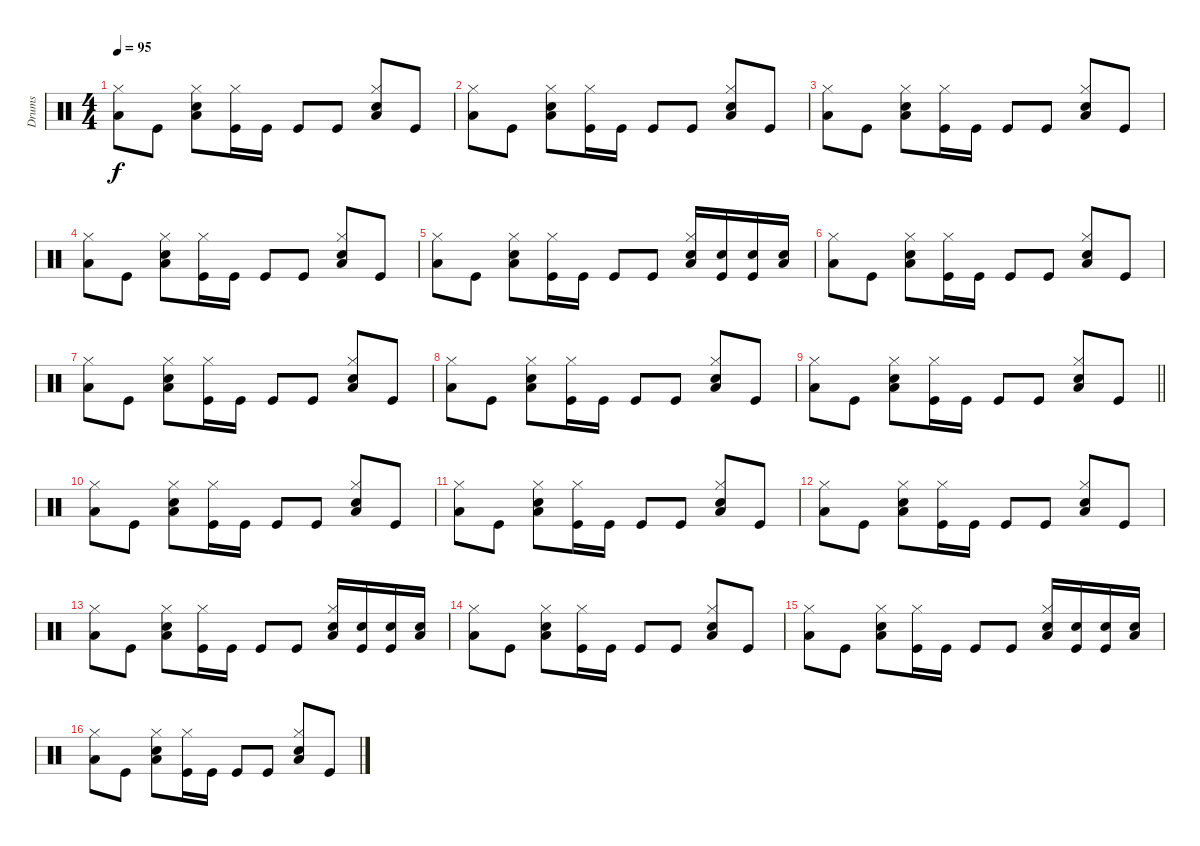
\track ("Drums" "Drums") {instrument percussion}
\staff {score}
\articulation defaults
\ts (4 4)
\tempo 95
\clef neutral
\ks c
("Low Floor Tom (hit)" "Hi-Hat (closed)").8{dy f} "Kick (hit)".8 ("Low Floor Tom (hit)" "Snare (hit) 2" "Hi-Hat (closed)").8 ("Kick (hit)" "Hi-Hat (closed)").16 "Kick (hit)".16 "Kick (hit)".8 "Kick (hit)".8 ("Low Floor Tom (hit)" "Snare (hit) 2" "Hi-Hat (closed)").8 "Kick (hit)".8 |
("Low Floor Tom (hit)" "Hi-Hat (closed)").8 "Kick (hit)".8 ("Low Floor Tom (hit)" "Snare (hit) 2" "Hi-Hat (closed)").8 ("Kick (hit)" "Hi-Hat (closed)").16 "Kick (hit)".16 "Kick (hit)".8 "Kick (hit)".8 ("Low Floor Tom (hit)" "Snare (hit) 2" "Hi-Hat (closed)").8 "Kick (hit)".8 |
("Low Floor Tom (hit)" "Hi-Hat (closed)").8 "Kick (hit)".8 ("Low Floor Tom (hit)" "Snare (hit) 2" "Hi-Hat (closed)").8 ("Kick (hit)" "Hi-Hat (closed)").16 "Kick (hit)".16 "Kick (hit)".8 "Kick (hit)".8 ("Low Floor Tom (hit)" "Snare (hit) 2" "Hi-Hat (closed)").8 "Kick (hit)".8 |
("Low Floor Tom (hit)" "Hi-Hat (closed)").8 "Kick (hit)".8 ("Low Floor Tom (hit)" "Snare (hit) 2" "Hi-Hat (closed)").8 ("Kick (hit)" "Hi-Hat (closed)").16 "Kick (hit)".16 "Kick (hit)".8 "Kick (hit)".8 ("Low Floor Tom (hit)" "Snare (hit) 2" "Hi-Hat (closed)").8 "Kick (hit)".8 |
("Low Floor Tom (hit)" "Hi-Hat (closed)").8 "Kick (hit)".8 ("Low Floor Tom (hit)" "Snare (hit) 2" "Hi-Hat (closed)").8 ("Kick (hit)" "Hi-Hat (closed)").16 "Kick (hit)".16 "Kick (hit)".8 "Kick (hit)".8 ("Low Floor Tom (hit)" "Snare (hit) 2" "Hi-Hat (closed)").16 ("Kick (hit)" "Snare (hit) 2").16 ("Kick (hit)" "Snare (hit) 2").16 ("Low Floor Tom (hit)" "Snare (hit) 2").16 |
("Low Floor Tom (hit)" "Hi-Hat (closed)").8 "Kick (hit)".8 ("Low Floor Tom (hit)" "Snare (hit) 2" "Hi-Hat (closed)").8 ("Kick (hit)" "Hi-Hat (closed)").16 "Kick (hit)".16 "Kick (hit)".8 "Kick (hit)".8 ("Low Floor Tom (hit)" "Snare (hit) 2" "Hi-Hat (closed)").8 "Kick (hit)".8 |
("Low Floor Tom (hit)" "Hi-Hat (closed)").8 "Kick (hit)".8 ("Low Floor Tom (hit)" "Snare (hit) 2" "Hi-Hat (closed)").8 ("Kick (hit)" "Hi-Hat (closed)").16 "Kick (hit)".16 "Kick (hit)".8 "Kick (hit)".8 ("Low Floor Tom (hit)" "Snare (hit) 2" "Hi-Hat (closed)").8 "Kick (hit)".8 |
("Low Floor Tom (hit)" "Hi-Hat (closed)").8 "Kick (hit)".8 ("Low Floor Tom (hit)" "Snare (hit) 2" "Hi-Hat (closed)").8 ("Kick (hit)" "Hi-Hat (closed)").16 "Kick (hit)".16 "Kick (hit)".8 "Kick (hit)".8 ("Low Floor Tom (hit)" "Snare (hit) 2" "Hi-Hat (closed)").8 "Kick (hit)".8 |
\barLineRight lightlight
("Low Floor Tom (hit)" "Hi-Hat (closed)").8 "Kick (hit)".8 ("Low Floor Tom (hit)" "Snare (hit) 2" "Hi-Hat (closed)").8 ("Kick (hit)" "Hi-Hat (closed)").16 "Kick (hit)".16 "Kick (hit)".8 "Kick (hit)".8 ("Low Floor Tom (hit)" "Snare (hit) 2" "Hi-Hat (closed)").8 "Kick (hit)".8 |
("Low Floor Tom (hit)" "Hi-Hat (closed)").8 "Kick (hit)".8 ("Low Floor Tom (hit)" "Snare (hit) 2" "Hi-Hat (closed)").8 ("Kick (hit)" "Hi-Hat (closed)").16 "Kick (hit)".16 "Kick (hit)".8 "Kick (hit)".8 ("Low Floor Tom (hit)" "Snare (hit) 2" "Hi-Hat (closed)").8 "Kick (hit)".8 |
("Low Floor Tom (hit)" "Hi-Hat (closed)").8 "Kick (hit)".8 ("Low Floor Tom (hit)" "Snare (hit) 2" "Hi-Hat (closed)").8 ("Kick (hit)" "Hi-Hat (closed)").16 "Kick (hit)".16 "Kick (hit)".8 "Kick (hit)".8 ("Low Floor Tom (hit)" "Snare (hit) 2" "Hi-Hat (closed)").8 "Kick (hit)".8 |
("Low Floor Tom (hit)" "Hi-Hat (closed)").8 "Kick (hit)".8 ("Low Floor Tom (hit)" "Snare (hit) 2" "Hi-Hat (closed)").8 ("Kick (hit)" "Hi-Hat (closed)").16 "Kick (hit)".16 "Kick (hit)".8 "Kick (hit)".8 ("Low Floor Tom (hit)" "Snare (hit) 2" "Hi-Hat (closed)").8 "Kick (hit)".8 |
("Low Floor Tom (hit)" "Hi-Hat (closed)").8 "Kick (hit)".8 ("Low Floor Tom (hit)" "Snare (hit) 2" "Hi-Hat (closed)").8 ("Kick (hit)" "Hi-Hat (closed)").16 "Kick (hit)".16 "Kick (hit)".8 "Kick (hit)".8 ("Low Floor Tom (hit)" "Snare (hit) 2" "Hi-Hat (closed)").16 ("Kick (hit)" "Snare (hit) 2").16 ("Kick (hit)" "Snare (hit) 2").16 ("Low Floor Tom (hit)" "Snare (hit) 2").16 |
("Low Floor Tom (hit)" "Hi-Hat (closed)").8 "Kick (hit)".8 ("Low Floor Tom (hit)" "Snare (hit) 2" "Hi-Hat (closed)").8 ("Kick (hit)" "Hi-Hat (closed)").16 "Kick (hit)".16 "Kick (hit)".8 "Kick (hit)".8 ("Low Floor Tom (hit)" "Snare (hit) 2" "Hi-Hat (closed)").8 "Kick (hit)".8 |
("Low Floor Tom (hit)" "Hi-Hat (closed)").8 "Kick (hit)".8 ("Low Floor Tom (hit)" "Snare (hit) 2" "Hi-Hat (closed)").8 ("Kick (hit)" "Hi-Hat (closed)").16 "Kick (hit)".16 "Kick (hit)".8 "Kick (hit)".8 ("Low Floor Tom (hit)" "Snare (hit) 2" "Hi-Hat (closed)").16 ("Kick (hit)" "Snare (hit) 2").16 ("Kick (hit)" "Snare (hit) 2").16 ("Low Floor Tom (hit)" "Snare (hit) 2").16 |
("Low Floor Tom (hit)" "Hi-Hat (closed)").8 "Kick (hit)".8 ("Low Floor Tom (hit)" "Snare (hit) 2" "Hi-Hat (closed)").8 ("Kick (hit)" "Hi-Hat (closed)").16 "Kick (hit)".16 "Kick (hit)".8 "Kick (hit)".8 ("Low Floor Tom (hit)" "Snare (hit) 2" "Hi-Hat (closed)").8 "Kick (hit)".8
